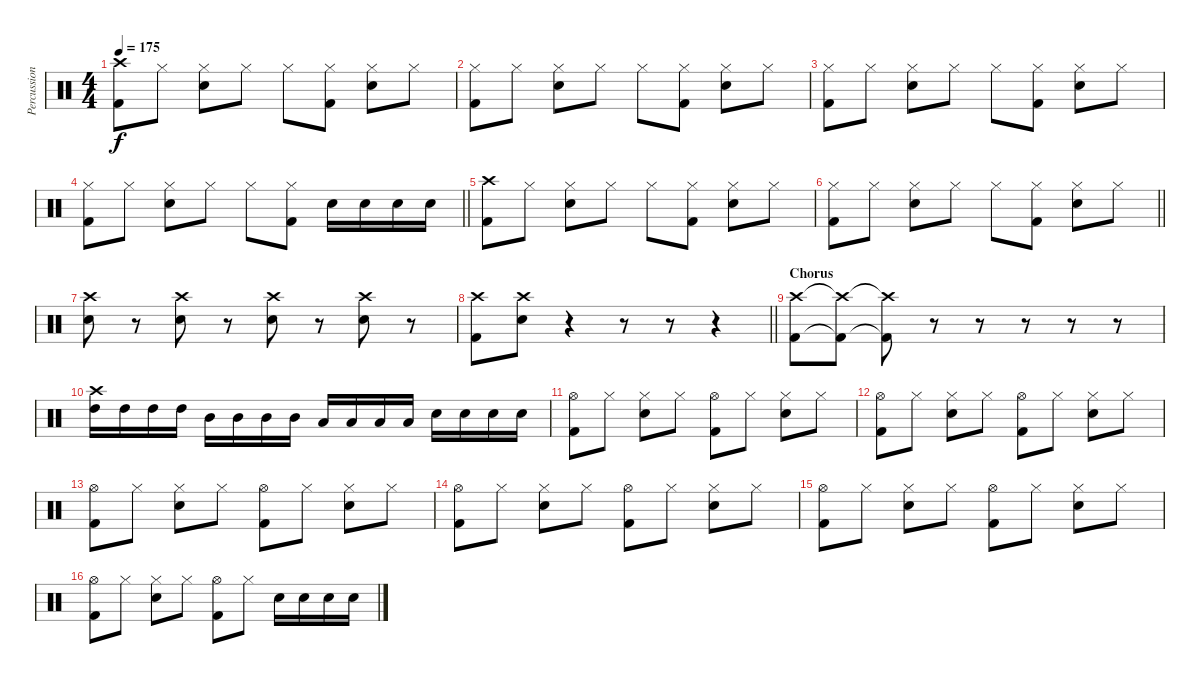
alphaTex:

\track ("Percussion" "Percussion") {instrument percussion}
\staff {score}
\articulation defaults
\ts (4 4)
\tempo 175
\clef neutral
\ks c
("Crash high (hit)" "Kick (hit) 2").8{dy f} "Hi-Hat (closed)".8 ("Hi-Hat (closed)" "Snare (hit) 2").8 "Hi-Hat (closed)".8 "Hi-Hat (closed)".8 ("Hi-Hat (closed)" "Kick (hit) 2").8 ("Hi-Hat (closed)" "Snare (hit) 2").8 "Hi-Hat (closed)".8 |
("Hi-Hat (closed)" "Kick (hit) 2").8 "Hi-Hat (closed)".8 ("Hi-Hat (closed)" "Snare (hit) 2").8 "Hi-Hat (closed)".8 "Hi-Hat (closed)".8 ("Hi-Hat (closed)" "Kick (hit) 2").8 ("Hi-Hat (closed)" "Snare (hit) 2").8 "Hi-Hat (closed)".8 |
("Hi-Hat (closed)" "Kick (hit) 2").8 "Hi-Hat (closed)".8 ("Hi-Hat (closed)" "Snare (hit) 2").8 "Hi-Hat (closed)".8 "Hi-Hat (closed)".8 ("Hi-Hat (closed)" "Kick (hit) 2").8 ("Hi-Hat (closed)" "Snare (hit) 2").8 "Hi-Hat (closed)".8 |
\barLineRight lightlight
("Hi-Hat (closed)" "Kick (hit) 2").8 "Hi-Hat (closed)".8 ("Hi-Hat (closed)" "Snare (hit) 2").8 "Hi-Hat (closed)".8 "Hi-Hat (closed)".8 ("Hi-Hat (closed)" "Kick (hit) 2").8 "Snare (hit) 2".16 "Snare (hit) 2".16 "Snare (hit) 2".16 "Snare (hit) 2".16 |
("Crash high (hit)" "Kick (hit) 2").8 "Hi-Hat (closed)".8 ("Hi-Hat (closed)" "Snare (hit) 2").8 "Hi-Hat (closed)".8 "Hi-Hat (closed)".8 ("Hi-Hat (closed)" "Kick (hit) 2").8 ("Hi-Hat (closed)" "Snare (hit) 2").8 "Hi-Hat (closed)".8 |
\barLineRight lightlight
("Hi-Hat (closed)" "Kick (hit) 2").8 "Hi-Hat (closed)".8 ("Hi-Hat (closed)" "Snare (hit) 2").8 "Hi-Hat (closed)".8 "Hi-Hat (closed)".8 ("Hi-Hat (closed)" "Kick (hit) 2").8 ("Hi-Hat (closed)" "Snare (hit) 2").8 "Hi-Hat (closed)".8 |
("Crash high (hit)" "Snare (hit) 2").8 r.8 ("Crash high (hit)" "Snare (hit) 2").8 r.8 ("Crash high (hit)" "Snare (hit) 2").8 r.8 ("Crash high (hit)" "Snare (hit) 2").8 r.8 |
\barLineRight lightlight
("Crash high (hit)" "Kick (hit) 2").8 ("Crash high (hit)" "Snare (hit) 2").8 r.4 r.8 r.8 r.4 |
\section ("" "Chorus")
("Crash high (hit)" "Kick (hit) 2").8 ("Crash high (hit)"{t} "Kick (hit) 2"{t}).8 ("Crash high (hit)"{t} "Kick (hit) 2"{t}).8 r.8 r.8 r.8 r.8 r.8 |
("Crash high (hit)" "High Tom (hit)").16 "High Tom (hit)".16 "High Tom (hit)".16 "High Tom (hit)".16 "Mid Tom (hit)".16 "Mid Tom (hit)".16 "Mid Tom (hit)".16 "Mid Tom (hit)".16 "Low Tom (hit)".16 "Low Tom (hit)".16 "Low Tom (hit)".16 "Low Tom (hit)".16 "Snare (hit) 2".16 "Snare (hit) 2".16 "Snare (hit) 2".16 "Snare (hit) 2".16 |
("Hi-Hat (open)" "Kick (hit) 2").8 "Hi-Hat (closed)".8 ("Hi-Hat (closed)" "Snare (hit) 2").8 "Hi-Hat (closed)".8 ("Hi-Hat (open)" "Kick (hit) 2").8 "Hi-Hat (closed)".8 ("Hi-Hat (closed)" "Snare (hit) 2").8 "Hi-Hat (closed)".8 |
("Hi-Hat (open)" "Kick (hit) 2").8 "Hi-Hat (closed)".8 ("Hi-Hat (closed)" "Snare (hit) 2").8 "Hi-Hat (closed)".8 ("Hi-Hat (open)" "Kick (hit) 2").8 "Hi-Hat (closed)".8 ("Hi-Hat (closed)" "Snare (hit) 2").8 "Hi-Hat (closed)".8 |
("Hi-Hat (open)" "Kick (hit) 2").8 "Hi-Hat (closed)".8 ("Hi-Hat (closed)" "Snare (hit) 2").8 "Hi-Hat (closed)".8 ("Hi-Hat (open)" "Kick (hit) 2").8 "Hi-Hat (closed)".8 ("Hi-Hat (closed)" "Snare (hit) 2").8 "Hi-Hat (closed)".8 |
("Hi-Hat (open)" "Kick (hit) 2").8 "Hi-Hat (closed)".8 ("Hi-Hat (closed)" "Snare (hit) 2").8 "Hi-Hat (closed)".8 ("Hi-Hat (open)" "Kick (hit) 2").8 "Hi-Hat (closed)".8 ("Hi-Hat (closed)" "Snare (hit) 2").8 "Hi-Hat (closed)".8 |
("Hi-Hat (open)" "Kick (hit) 2").8 "Hi-Hat (closed)".8 ("Hi-Hat (closed)" "Snare (hit) 2").8 "Hi-Hat (closed)".8 ("Hi-Hat (open)" "Kick (hit) 2").8 "Hi-Hat (closed)".8 ("Hi-Hat (closed)" "Snare (hit) 2").8 "Hi-Hat (closed)".8 |
("Hi-Hat (open)" "Kick (hit) 2").8 "Hi-Hat (closed)".8 ("Hi-Hat (closed)" "Snare (hit) 2").8 "Hi-Hat (closed)".8 ("Hi-Hat (open)" "Kick (hit) 2").8 "Hi-Hat (closed)".8 "Snare (hit) 2".16 "Snare (hit) 2".16 "Snare (hit) 2".16 "Snare (hit) 2".16
